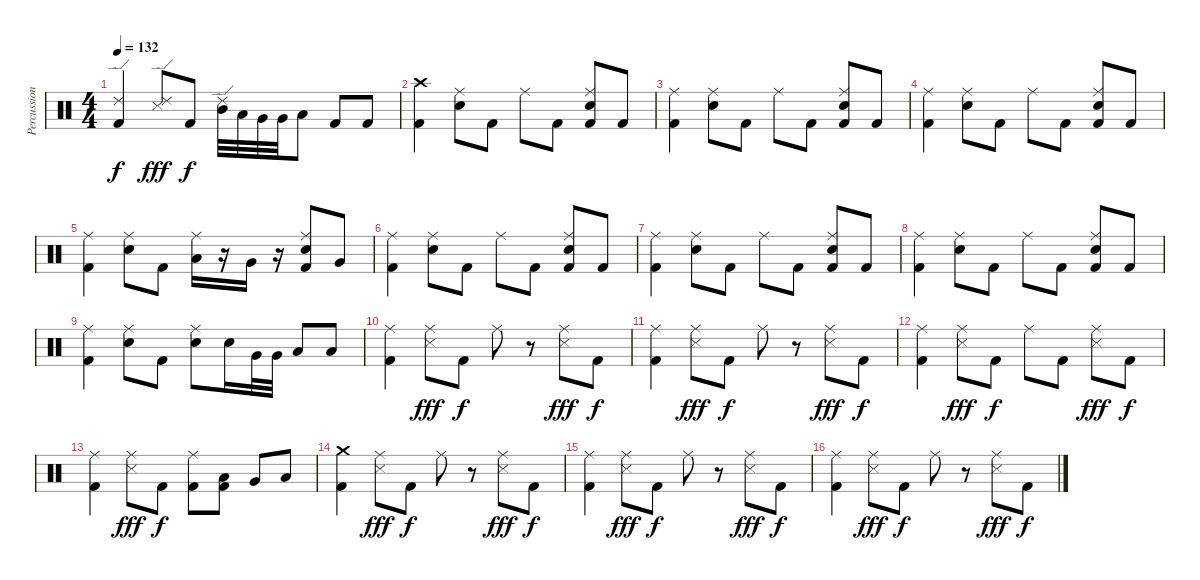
\track ("Percussions" "Percussion") {instrument percussion}
\staff {score}
\articulation defaults
\ts (4 4)
\tempo 132
\clef neutral
\ks c
("Ride (edge) 2" "Kick (hit) 2").4{dy f} ("Ride (edge) 2" "Snare (side stick) 3").8{dy fff} "Kick (hit) 2".8{dy f} ("Ride (edge) 2" "Mid Tom (hit)").32 "Low Tom (hit)".32 "Very Low Tom (hit)".32 "Very Low Tom (hit)".32 "Low Floor Tom (hit)".8 "Kick (hit) 2".8 "Kick (hit) 2".8 |
("Crash high (hit)" "Kick (hit) 2").4 ("Ride (middle)" "Electric Snare (hit)").8 "Kick (hit) 2".8 "Ride (middle)".8 "Kick (hit) 2".8 ("Ride (middle)" "Electric Snare (hit)" "Kick (hit) 2").8 "Kick (hit) 2".8 |
("Ride (middle)" "Kick (hit) 2").4 ("Ride (middle)" "Electric Snare (hit)").8 "Kick (hit) 2".8 "Ride (middle)".8 "Kick (hit) 2".8 ("Ride (middle)" "Electric Snare (hit)" "Kick (hit) 2").8 "Kick (hit) 2".8 |
("Ride (middle)" "Kick (hit) 2").4 ("Ride (middle)" "Electric Snare (hit)").8 "Kick (hit) 2".8 "Ride (middle)".8 "Kick (hit) 2".8 ("Ride (middle)" "Electric Snare (hit)" "Kick (hit) 2").8 "Kick (hit) 2".8 |
("Ride (middle)" "Kick (hit) 2").4 ("Ride (middle)" "Electric Snare (hit)").8 "Kick (hit) 2".8 ("Ride (middle)" "Low Tom (hit)").16 r.16 "Very Low Tom (hit)".16 r.16 ("Ride (middle)" "Electric Snare (hit)" "Kick (hit) 2").8 "Very Low Tom (hit)".8 |
("Ride (middle)" "Kick (hit) 2").4 ("Ride (middle)" "Electric Snare (hit)").8 "Kick (hit) 2".8 "Ride (middle)".8 "Kick (hit) 2".8 ("Ride (middle)" "Electric Snare (hit)" "Kick (hit) 2").8 "Kick (hit) 2".8 |
("Ride (middle)" "Kick (hit) 2").4 ("Ride (middle)" "Electric Snare (hit)").8 "Kick (hit) 2".8 "Ride (middle)".8 "Kick (hit) 2".8 ("Ride (middle)" "Electric Snare (hit)" "Kick (hit) 2").8 "Kick (hit) 2".8 |
("Ride (middle)" "Kick (hit) 2").4 ("Ride (middle)" "Electric Snare (hit)").8 "Kick (hit) 2".8 "Ride (middle)".8 "Kick (hit) 2".8 ("Ride (middle)" "Electric Snare (hit)" "Kick (hit) 2").8 "Kick (hit) 2".8 |
("Ride (middle)" "Kick (hit) 2").4 ("Ride (middle)" "Electric Snare (hit)").8 "Kick (hit) 2".8 ("Ride (middle)" "Electric Snare (hit)").8 "Electric Snare (hit)".16 "Very Low Tom (hit)".32 "Very Low Tom (hit)".32 "Low Floor Tom (hit)".8 "Low Floor Tom (hit)".8 |
("Ride (middle)" "Kick (hit) 2").4 ("Ride (middle)" "Snare (side stick) 3").8{dy fff} "Kick (hit) 2".8{dy f} "Ride (middle)".8 r.8 ("Ride (middle)" "Snare (side stick) 3").8{dy fff} "Kick (hit) 2".8{dy f} |
("Ride (middle)" "Kick (hit) 2").4 ("Ride (middle)" "Snare (side stick) 3").8{dy fff} "Kick (hit) 2".8{dy f} "Ride (middle)".8 r.8 ("Ride (middle)" "Snare (side stick) 3").8{dy fff} "Kick (hit) 2".8{dy f} |
("Ride (middle)" "Kick (hit) 2").4 ("Ride (middle)" "Snare (side stick) 3").8{dy fff} "Kick (hit) 2".8{dy f} "Ride (middle)".8 "Kick (hit) 2".8 ("Ride (middle)" "Snare (side stick) 3").8{dy fff} "Kick (hit) 2".8{dy f} |
("Ride (middle)" "Kick (hit) 2").4 ("Ride (middle)" "Snare (side stick) 3").8{dy fff} "Kick (hit) 2".8{dy f} ("Ride (middle)" "Kick (hit) 2").8 ("Low Tom (hit)" "Kick (hit) 2").8 "Very Low Tom (hit)".8 "Low Floor Tom (hit)".8 |
("Crash medium (hit)" "Kick (hit) 2").4 ("Ride (middle)" "Snare (side stick) 3").8{dy fff} "Kick (hit) 2".8{dy f} "Ride (middle)".8 r.8 ("Ride (middle)" "Snare (side stick) 3").8{dy fff} "Kick (hit) 2".8{dy f} |
("Ride (middle)" "Kick (hit) 2").4 ("Ride (middle)" "Snare (side stick) 3").8{dy fff} "Kick (hit) 2".8{dy f} "Ride (middle)".8 r.8 ("Ride (middle)" "Snare (side stick) 3").8{dy fff} "Kick (hit) 2".8{dy f} |
("Ride (middle)" "Kick (hit) 2").4 ("Ride (middle)" "Snare (side stick) 3").8{dy fff} "Kick (hit) 2".8{dy f} "Ride (middle)".8 r.8 ("Ride (middle)" "Snare (side stick) 3").8{dy fff} "Kick (hit) 2".8{dy f}
